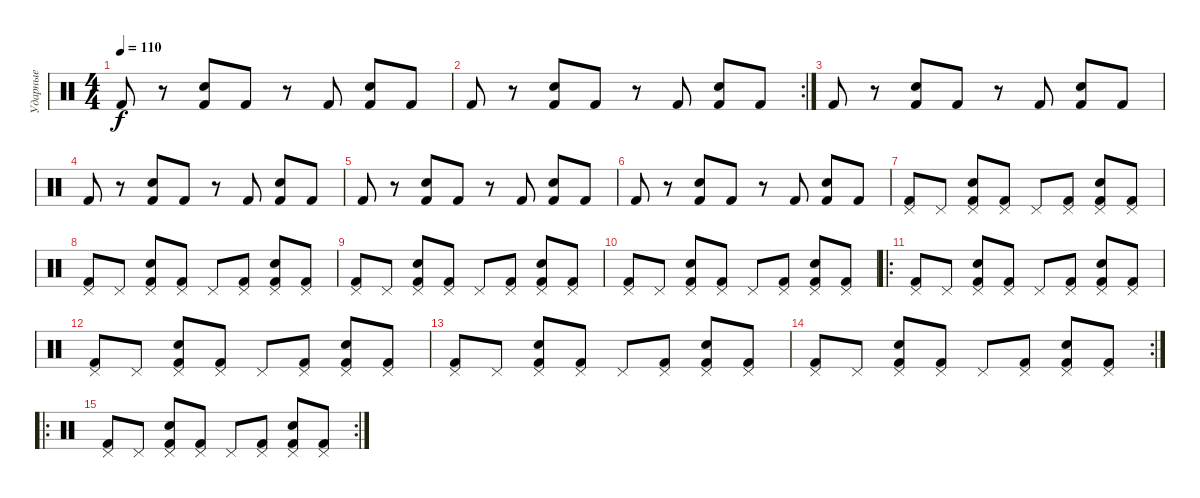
\track ("Ударные" "Ударные") {instrument percussion}
\staff {score}
\articulation defaults
\ts (4 4)
\tempo 110
\clef neutral
\ks c "Kick (hit) 2".8{dy f}
r.8 ("Snare (hit) 2" "Kick (hit) 2").8 "Kick (hit) 2".8 r.8 "Kick (hit) 2".8 ("Snare (hit) 2" "Kick (hit) 2").8 "Kick (hit) 2".8 |
\rc 2 "Kick (hit) 2".8
r.8 ("Snare (hit) 2" "Kick (hit) 2").8 "Kick (hit) 2".8 r.8 "Kick (hit) 2".8 ("Snare (hit) 2" "Kick (hit) 2").8 "Kick (hit) 2".8 |
"Kick (hit) 2".8 r.8 ("Snare (hit) 2" "Kick (hit) 2").8 "Kick (hit) 2".8 r.8 "Kick (hit) 2".8 ("Snare (hit) 2" "Kick (hit) 2").8 "Kick (hit) 2".8 |
"Kick (hit) 2".8 r.8 ("Snare (hit) 2" "Kick (hit) 2").8 "Kick (hit) 2".8 r.8 "Kick (hit) 2".8 ("Snare (hit) 2" "Kick (hit) 2").8 "Kick (hit) 2".8 |
"Kick (hit) 2".8 r.8 ("Snare (hit) 2" "Kick (hit) 2").8 "Kick (hit) 2".8 r.8 "Kick (hit) 2".8 ("Snare (hit) 2" "Kick (hit) 2").8 "Kick (hit) 2".8 |
"Kick (hit) 2".8 r.8 ("Snare (hit) 2" "Kick (hit) 2").8 "Kick (hit) 2".8 r.8 "Kick (hit) 2".8 ("Snare (hit) 2" "Kick (hit) 2").8 "Kick (hit) 2".8 |
("Kick (hit) 2" "Pedal Hi-Hat (hit)").8 "Pedal Hi-Hat (hit)".8 ("Snare (hit) 2" "Kick (hit) 2" "Pedal Hi-Hat (hit)").8 ("Kick (hit) 2" "Pedal Hi-Hat (hit)").8 "Pedal Hi-Hat (hit)".8 ("Kick (hit) 2" "Pedal Hi-Hat (hit)").8 ("Snare (hit) 2" "Kick (hit) 2" "Pedal Hi-Hat (hit)").8 ("Kick (hit) 2" "Pedal Hi-Hat (hit)").8 |
("Kick (hit) 2" "Pedal Hi-Hat (hit)").8 "Pedal Hi-Hat (hit)".8 ("Snare (hit) 2" "Kick (hit) 2" "Pedal Hi-Hat (hit)").8 ("Kick (hit) 2" "Pedal Hi-Hat (hit)").8 "Pedal Hi-Hat (hit)".8 ("Kick (hit) 2" "Pedal Hi-Hat (hit)").8 ("Snare (hit) 2" "Kick (hit) 2" "Pedal Hi-Hat (hit)").8 ("Kick (hit) 2" "Pedal Hi-Hat (hit)").8 |
("Kick (hit) 2" "Pedal Hi-Hat (hit)").8 "Pedal Hi-Hat (hit)".8 ("Snare (hit) 2" "Kick (hit) 2" "Pedal Hi-Hat (hit)").8 ("Kick (hit) 2" "Pedal Hi-Hat (hit)").8 "Pedal Hi-Hat (hit)".8 ("Kick (hit) 2" "Pedal Hi-Hat (hit)").8 ("Snare (hit) 2" "Kick (hit) 2" "Pedal Hi-Hat (hit)").8 ("Kick (hit) 2" "Pedal Hi-Hat (hit)").8 |
("Kick (hit) 2" "Pedal Hi-Hat (hit)").8 "Pedal Hi-Hat (hit)".8 ("Snare (hit) 2" "Kick (hit) 2" "Pedal Hi-Hat (hit)").8 ("Kick (hit) 2" "Pedal Hi-Hat (hit)").8 "Pedal Hi-Hat (hit)".8 ("Kick (hit) 2" "Pedal Hi-Hat (hit)").8 ("Snare (hit) 2" "Kick (hit) 2" "Pedal Hi-Hat (hit)").8 ("Kick (hit) 2" "Pedal Hi-Hat (hit)").8 |
\ro
("Kick (hit) 2" "Pedal Hi-Hat (hit)").8 "Pedal Hi-Hat (hit)".8 ("Snare (hit) 2" "Kick (hit) 2" "Pedal Hi-Hat (hit)").8 ("Kick (hit) 2" "Pedal Hi-Hat (hit)").8 "Pedal Hi-Hat (hit)".8 ("Kick (hit) 2" "Pedal Hi-Hat (hit)").8 ("Snare (hit) 2" "Kick (hit) 2" "Pedal Hi-Hat (hit)").8 ("Kick (hit) 2" "Pedal Hi-Hat (hit)").8 |
("Kick (hit) 2" "Pedal Hi-Hat (hit)").8 "Pedal Hi-Hat (hit)".8 ("Snare (hit) 2" "Kick (hit) 2" "Pedal Hi-Hat (hit)").8 ("Kick (hit) 2" "Pedal Hi-Hat (hit)").8 "Pedal Hi-Hat (hit)".8 ("Kick (hit) 2" "Pedal Hi-Hat (hit)").8 ("Snare (hit) 2" "Kick (hit) 2" "Pedal Hi-Hat (hit)").8 ("Kick (hit) 2" "Pedal Hi-Hat (hit)").8 |
("Kick (hit) 2" "Pedal Hi-Hat (hit)").8 "Pedal Hi-Hat (hit)".8 ("Snare (hit) 2" "Kick (hit) 2" "Pedal Hi-Hat (hit)").8 ("Kick (hit) 2" "Pedal Hi-Hat (hit)").8 "Pedal Hi-Hat (hit)".8 ("Kick (hit) 2" "Pedal Hi-Hat (hit)").8 ("Snare (hit) 2" "Kick (hit) 2" "Pedal Hi-Hat (hit)").8 ("Kick (hit) 2" "Pedal Hi-Hat (hit)").8 |
\rc 2
("Kick (hit) 2" "Pedal Hi-Hat (hit)").8 "Pedal Hi-Hat (hit)".8 ("Snare (hit) 2" "Kick (hit) 2" "Pedal Hi-Hat (hit)").8 ("Kick (hit) 2" "Pedal Hi-Hat (hit)").8 "Pedal Hi-Hat (hit)".8 ("Kick (hit) 2" "Pedal Hi-Hat (hit)").8 ("Snare (hit) 2" "Kick (hit) 2" "Pedal Hi-Hat (hit)").8 ("Kick (hit) 2" "Pedal Hi-Hat (hit)").8 |
\ro
\rc 2
("Kick (hit) 2" "Pedal Hi-Hat (hit)").8 "Pedal Hi-Hat (hit)".8 ("Snare (hit) 2" "Kick (hit) 2" "Pedal Hi-Hat (hit)").8 ("Kick (hit) 2" "Pedal Hi-Hat (hit)").8 "Pedal Hi-Hat (hit)".8 ("Kick (hit) 2" "Pedal Hi-Hat (hit)").8 ("Snare (hit) 2" "Kick (hit) 2" "Pedal Hi-Hat (hit)").8 ("Kick (hit) 2" "Pedal Hi-Hat (hit)").8
